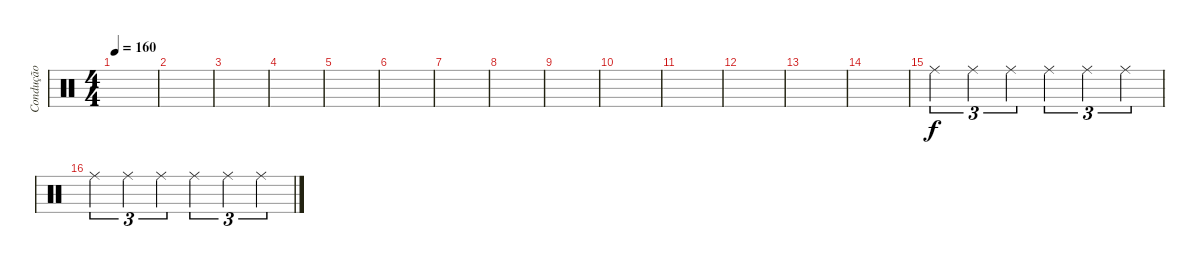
\track ("Condução" "Condução") {instrument percussion}
\staff {score}
\articulation defaults
\ts (4 4)
\tempo 160
\clef neutral
\ks c
|
|
|
|
|
|
|
|
|
|
|
|
|
|
"Ride (middle)".4{tu (3 2)} "Ride (middle)".4{tu (3 2)} "Ride (middle)".4{tu (3 2)} "Ride (middle)".4{tu (3 2)} "Ride (middle)".4{tu (3 2)} "Ride (middle)".4{tu (3 2)} |
"Ride (middle)".4{tu (3 2)} "Ride (middle)".4{tu (3 2)} "Ride (middle)".4{tu (3 2)} "Ride (middle)".4{tu (3 2)} "Ride (middle)".4{tu (3 2)} "Ride (middle)".4{tu (3 2)}
